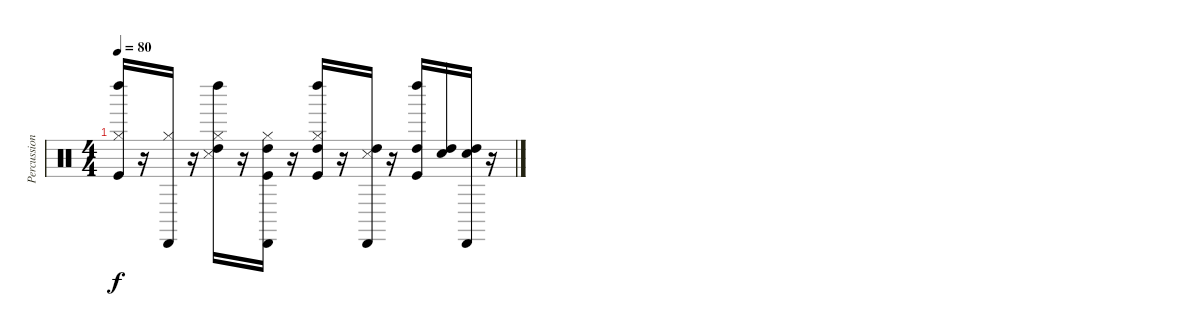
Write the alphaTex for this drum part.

\track ("Percussions" "Percussion") {instrument percussion}
\staff {score}
\articulation defaults
\ts (4 4)
\tempo 80
\clef neutral
\ks c
("Kick (hit)" "Hi-Hat (closed)" "Left Maraca (hit)").16{dy f} r.16 ("Hi-Hat (closed)" "Cabasa (hit)").16 r.16 ("Hi-Hat (closed)" "Snare (side stick) 3" "High Tom (hit)" "Left Maraca (hit)").16 r.16 ("Kick (hit)" "Hi-Hat (closed)" "High Tom (hit)" "Cabasa (hit)").16 r.16 ("Kick (hit)" "Hi-Hat (closed)" "High Tom (hit)" "Left Maraca (hit)").16 r.16 ("Snare (side stick) 3" "High Tom (hit)" "Cabasa (hit)").16 r.16 ("Kick (hit)" "High Tom (hit)" "Left Maraca (hit)").16 ("Snare (hit)" "High Tom (hit)").16 ("Snare (hit)" "High Tom (hit)" "Cabasa (hit)").16 r.16
